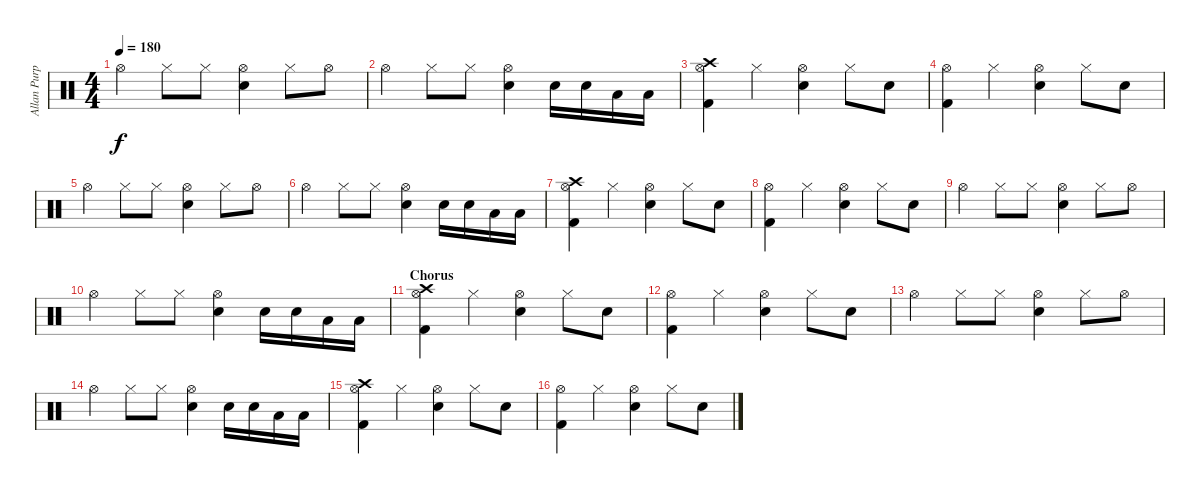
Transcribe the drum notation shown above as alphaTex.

\track ("Allan Purple" "Allan Purp") {instrument percussion}
\staff {score}
\articulation defaults
\ts (4 4)
\tempo 180
\clef neutral
\ks c "Hi-Hat (open)".4{dy f} "Hi-Hat (closed)".8 "Hi-Hat (closed)".8
("Hi-Hat (open)" "Snare (hit) 2").4 "Hi-Hat (closed)".8 "Hi-Hat (open)".8 |
"Hi-Hat (open)".4 "Hi-Hat (closed)".8 "Hi-Hat (closed)".8 ("Hi-Hat (open)" "Snare (hit) 2").4 "Electric Snare (hit)".16 "Electric Snare (hit)".16 "Low Tom (hit)".16 "Low Tom (hit)".16 |
("Crash high (hit)" "Hi-Hat (open)" "Kick (hit) 2").4 "Hi-Hat (closed)".4 ("Hi-Hat (open)" "Snare (hit) 2").4 "Hi-Hat (closed)".8 "Snare (hit) 2".8 |
("Hi-Hat (open)" "Kick (hit) 2").4 "Hi-Hat (closed)".4 ("Hi-Hat (open)" "Snare (hit) 2").4 "Hi-Hat (closed)".8 "Snare (hit) 2".8 |
"Hi-Hat (open)".4 "Hi-Hat (closed)".8 "Hi-Hat (closed)".8 ("Hi-Hat (open)" "Snare (hit) 2").4 "Hi-Hat (closed)".8 "Hi-Hat (open)".8 |
"Hi-Hat (open)".4 "Hi-Hat (closed)".8 "Hi-Hat (closed)".8 ("Hi-Hat (open)" "Snare (hit) 2").4 "Electric Snare (hit)".16 "Electric Snare (hit)".16 "Low Tom (hit)".16 "Low Tom (hit)".16 |
("Crash high (hit)" "Hi-Hat (open)" "Kick (hit) 2").4 "Hi-Hat (closed)".4 ("Hi-Hat (open)" "Snare (hit) 2").4 "Hi-Hat (closed)".8 "Snare (hit) 2".8 |
("Hi-Hat (open)" "Kick (hit) 2").4 "Hi-Hat (closed)".4 ("Hi-Hat (open)" "Snare (hit) 2").4 "Hi-Hat (closed)".8 "Snare (hit) 2".8 |
"Hi-Hat (open)".4 "Hi-Hat (closed)".8 "Hi-Hat (closed)".8 ("Hi-Hat (open)" "Snare (hit) 2").4 "Hi-Hat (closed)".8 "Hi-Hat (open)".8 |
"Hi-Hat (open)".4 "Hi-Hat (closed)".8 "Hi-Hat (closed)".8 ("Hi-Hat (open)" "Snare (hit) 2").4 "Electric Snare (hit)".16 "Electric Snare (hit)".16 "Low Tom (hit)".16 "Low Tom (hit)".16 |
\section ("" "Chorus")
("Crash high (hit)" "Hi-Hat (open)" "Kick (hit) 2").4 "Hi-Hat (closed)".4 ("Hi-Hat (open)" "Snare (hit) 2").4 "Hi-Hat (closed)".8 "Snare (hit) 2".8 |
("Hi-Hat (open)" "Kick (hit) 2").4 "Hi-Hat (closed)".4 ("Hi-Hat (open)" "Snare (hit) 2").4 "Hi-Hat (closed)".8 "Snare (hit) 2".8 |
"Hi-Hat (open)".4 "Hi-Hat (closed)".8 "Hi-Hat (closed)".8 ("Hi-Hat (open)" "Snare (hit) 2").4 "Hi-Hat (closed)".8 "Hi-Hat (open)".8 |
"Hi-Hat (open)".4 "Hi-Hat (closed)".8 "Hi-Hat (closed)".8 ("Hi-Hat (open)" "Snare (hit) 2").4 "Electric Snare (hit)".16 "Electric Snare (hit)".16 "Low Tom (hit)".16 "Low Tom (hit)".16 |
("Crash high (hit)" "Hi-Hat (open)" "Kick (hit) 2").4 "Hi-Hat (closed)".4 ("Hi-Hat (open)" "Snare (hit) 2").4 "Hi-Hat (closed)".8 "Snare (hit) 2".8 |
("Hi-Hat (open)" "Kick (hit) 2").4 "Hi-Hat (closed)".4 ("Hi-Hat (open)" "Snare (hit) 2").4 "Hi-Hat (closed)".8 "Snare (hit) 2".8
